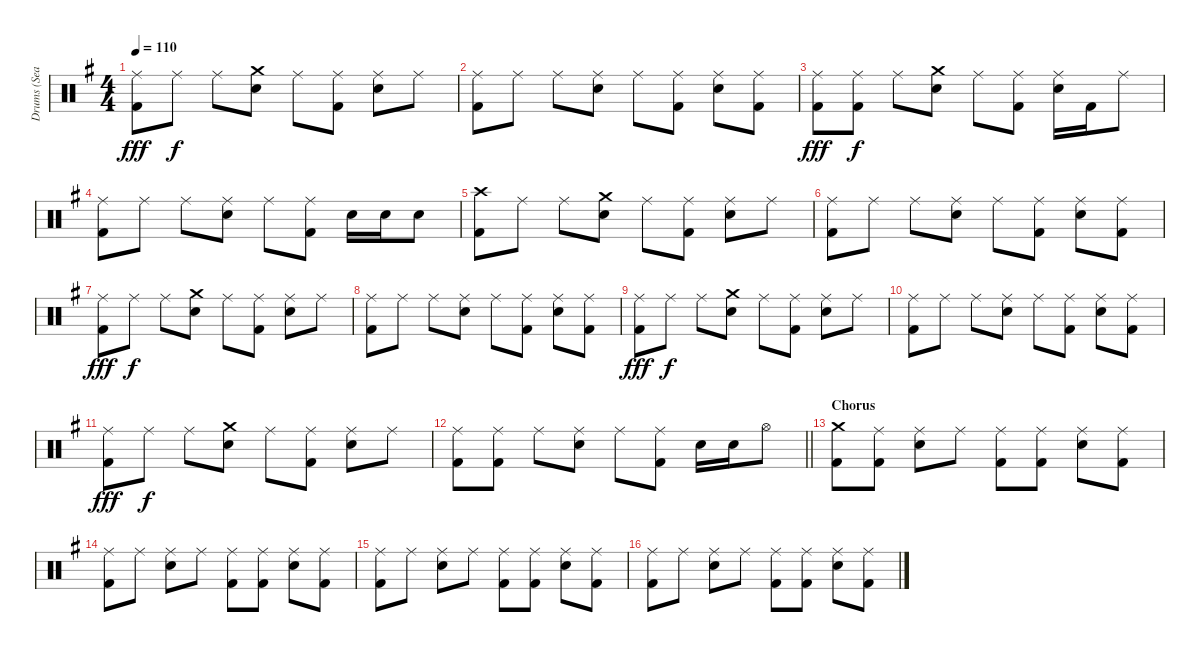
\track ("Drums (Sean)" "Drums (Sea") {instrument percussion}
\staff {score}
\articulation defaults
\ts (4 4)
\tempo 110
\clef neutral
\ks g
("Ride (middle)" "Kick (hit) 2").8{dy fff} "Ride (middle)".8{dy f} "Ride (middle)".8 ("Crash medium (hit)" "Snare (hit) 2").8 "Ride (middle)".8 ("Ride (middle)" "Kick (hit) 2").8 ("Ride (middle)" "Snare (hit) 2").8 "Ride (middle)".8 |
("Ride (middle)" "Kick (hit) 2").8 "Ride (middle)".8 "Ride (middle)".8 ("Ride (middle)" "Snare (hit) 2").8 "Ride (middle)".8 ("Ride (middle)" "Kick (hit) 2").8 ("Ride (middle)" "Snare (hit) 2").8 ("Ride (middle)" "Kick (hit) 2").8 |
("Ride (middle)" "Kick (hit) 2").8{dy fff} ("Ride (middle)" "Kick (hit) 2").8{dy f} "Ride (middle)".8 ("Crash medium (hit)" "Snare (hit) 2").8 "Ride (middle)".8 ("Ride (middle)" "Kick (hit) 2").8 ("Ride (middle)" "Snare (hit) 2").16 "Kick (hit) 2".16 "Ride (middle)".8 |
("Ride (middle)" "Kick (hit) 2").8 "Ride (middle)".8 "Ride (middle)".8 ("Ride (middle)" "Snare (hit) 2").8 "Ride (middle)".8 ("Ride (middle)" "Kick (hit) 2").8 "Snare (hit) 2".16 "Snare (hit) 2".16 "Snare (hit) 2".8 |
("Crash high (hit)" "Kick (hit) 2").8 "Ride (middle)".8 "Ride (middle)".8 ("Crash medium (hit)" "Snare (hit) 2").8 "Ride (middle)".8 ("Ride (middle)" "Kick (hit) 2").8 ("Ride (middle)" "Snare (hit) 2").8 "Ride (middle)".8 |
("Ride (middle)" "Kick (hit) 2").8 "Ride (middle)".8 "Ride (middle)".8 ("Ride (middle)" "Snare (hit) 2").8 "Ride (middle)".8 ("Ride (middle)" "Kick (hit) 2").8 ("Ride (middle)" "Snare (hit) 2").8 ("Ride (middle)" "Kick (hit) 2").8 |
("Ride (middle)" "Kick (hit) 2").8{dy fff} "Ride (middle)".8{dy f} "Ride (middle)".8 ("Crash medium (hit)" "Snare (hit) 2").8 "Ride (middle)".8 ("Ride (middle)" "Kick (hit) 2").8 ("Ride (middle)" "Snare (hit) 2").8 "Ride (middle)".8 |
("Ride (middle)" "Kick (hit) 2").8 "Ride (middle)".8 "Ride (middle)".8 ("Ride (middle)" "Snare (hit) 2").8 "Ride (middle)".8 ("Ride (middle)" "Kick (hit) 2").8 ("Ride (middle)" "Snare (hit) 2").8 ("Ride (middle)" "Kick (hit) 2").8 |
("Ride (middle)" "Kick (hit) 2").8{dy fff} "Ride (middle)".8{dy f} "Ride (middle)".8 ("Crash medium (hit)" "Snare (hit) 2").8 "Ride (middle)".8 ("Ride (middle)" "Kick (hit) 2").8 ("Ride (middle)" "Snare (hit) 2").8 "Ride (middle)".8 |
("Ride (middle)" "Kick (hit) 2").8 "Ride (middle)".8 "Ride (middle)".8 ("Ride (middle)" "Snare (hit) 2").8 "Ride (middle)".8 ("Ride (middle)" "Kick (hit) 2").8 ("Ride (middle)" "Snare (hit) 2").8 ("Ride (middle)" "Kick (hit) 2").8 |
("Ride (middle)" "Kick (hit) 2").8{dy fff} "Ride (middle)".8{dy f} "Ride (middle)".8 ("Crash medium (hit)" "Snare (hit) 2").8 "Ride (middle)".8 ("Ride (middle)" "Kick (hit) 2").8 ("Ride (middle)" "Snare (hit) 2").8 "Ride (middle)".8 |
\barLineRight lightlight
("Ride (middle)" "Kick (hit) 2").8 ("Ride (middle)" "Kick (hit) 2").8 "Ride (middle)".8 ("Ride (middle)" "Snare (hit) 2").8 "Ride (middle)".8 ("Ride (middle)" "Kick (hit) 2").8 "Snare (hit) 2".16 "Snare (hit) 2".16 "Hi-Hat (open)".8 |
\section ("" "Chorus")
("Crash medium (hit)" "Kick (hit) 2").8 ("Ride (middle)" "Kick (hit) 2").8 ("Ride (middle)" "Snare (hit) 2").8 "Ride (middle)".8 ("Ride (middle)" "Kick (hit) 2").8 ("Ride (middle)" "Kick (hit) 2").8 ("Ride (middle)" "Snare (hit) 2").8 ("Ride (middle)" "Kick (hit) 2").8 |
("Ride (middle)" "Kick (hit) 2").8 "Ride (middle)".8 ("Ride (middle)" "Snare (hit) 2").8 "Ride (middle)".8 ("Ride (middle)" "Kick (hit) 2").8 ("Ride (middle)" "Kick (hit) 2").8 ("Ride (middle)" "Snare (hit) 2").8 ("Ride (middle)" "Kick (hit) 2").8 |
("Ride (middle)" "Kick (hit) 2").8 "Ride (middle)".8 ("Ride (middle)" "Snare (hit) 2").8 "Ride (middle)".8 ("Ride (middle)" "Kick (hit) 2").8 ("Ride (middle)" "Kick (hit) 2").8 ("Ride (middle)" "Snare (hit) 2").8 ("Ride (middle)" "Kick (hit) 2").8 |
("Ride (middle)" "Kick (hit) 2").8 "Ride (middle)".8 ("Ride (middle)" "Snare (hit) 2").8 "Ride (middle)".8 ("Ride (middle)" "Kick (hit) 2").8 ("Ride (middle)" "Kick (hit) 2").8 ("Ride (middle)" "Snare (hit) 2").8 ("Ride (middle)" "Kick (hit) 2").8
